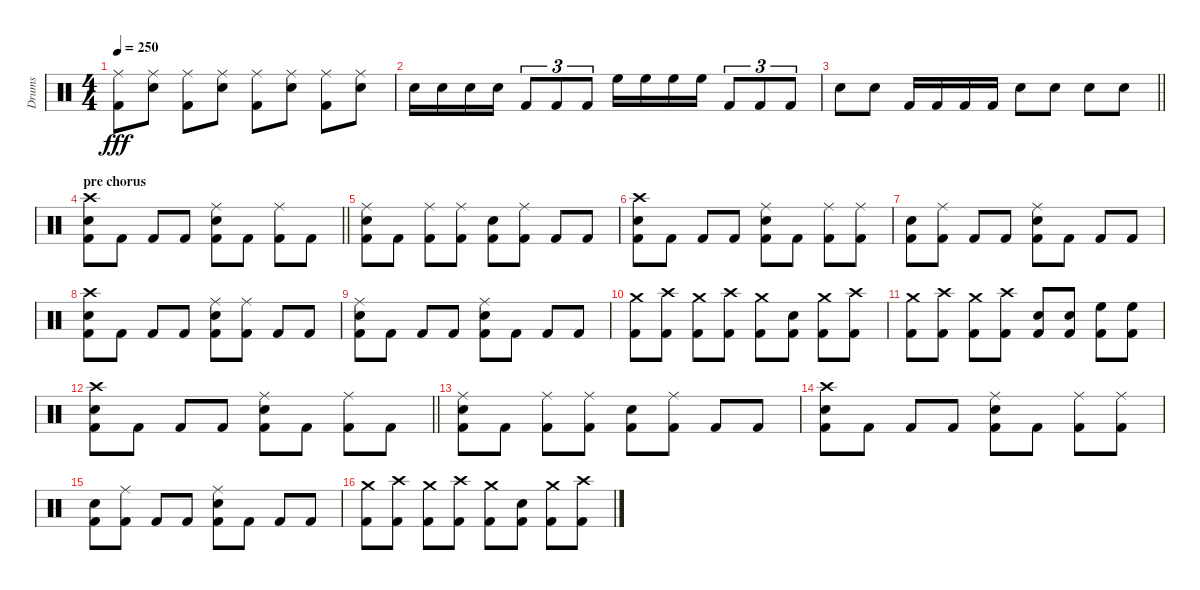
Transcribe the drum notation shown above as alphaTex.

\track ("Drums" "Drums") {solo instrument percussion}
\staff {score}
\articulation defaults
\ts (4 4)
\tempo 250
\clef neutral
\ks c
("Ride (middle)" "Kick (hit) 2").8{dy fff} ("Ride (middle)" "Snare (hit) 2").8 ("Ride (middle)" "Kick (hit) 2").8 ("Ride (middle)" "Snare (hit) 2").8 ("Ride (middle)" "Kick (hit) 2").8 ("Ride (middle)" "Snare (hit) 2").8 ("Ride (middle)" "Kick (hit) 2").8 ("Ride (middle)" "Snare (hit) 2").8 |
"Snare (hit) 2".16 "Snare (hit) 2".16 "Snare (hit) 2".16 "Snare (hit) 2".16 "Kick (hit) 2".8{tu (3 2)} "Kick (hit) 2".8{tu (3 2)} "Kick (hit) 2".8{tu (3 2)} "High Floor Tom (hit)".16 "High Floor Tom (hit)".16 "High Floor Tom (hit)".16 "High Floor Tom (hit)".16 "Kick (hit) 2".8{tu (3 2)} "Kick (hit) 2".8{tu (3 2)} "Kick (hit) 2".8{tu (3 2)} |
\barLineRight lightlight "Snare (hit) 2".8 "Snare (hit) 2".8 "Kick (hit) 2".16 "Kick (hit) 2".16 "Kick (hit) 2".16 "Kick (hit) 2".16 "Snare (hit) 2".8 "Snare (hit) 2".8 "Snare (hit) 2".8 "Snare (hit) 2".8
|
\section ("" "pre chorus")
\barLineRight lightlight
("Crash high (hit)" "Snare (hit) 2" "Kick (hit) 2").8 "Kick (hit) 2".8 "Kick (hit) 2".8 "Kick (hit) 2".8 ("Ride (middle)" "Snare (hit) 2" "Kick (hit) 2").8 "Kick (hit) 2".8 ("Ride (middle)" "Kick (hit) 2").8 "Kick (hit) 2".8 |
("Ride (middle)" "Snare (hit) 2" "Kick (hit) 2").8 "Kick (hit) 2".8 ("Ride (middle)" "Kick (hit) 2").8 ("Ride (middle)" "Kick (hit) 2").8 ("Snare (hit) 2" "Kick (hit) 2").8 ("Ride (middle)" "Kick (hit) 2").8 "Kick (hit) 2".8 "Kick (hit) 2".8 |
("Crash high (hit)" "Snare (hit) 2" "Kick (hit) 2").8 "Kick (hit) 2".8 "Kick (hit) 2".8 "Kick (hit) 2".8 ("Ride (middle)" "Snare (hit) 2" "Kick (hit) 2").8 "Kick (hit) 2".8 ("Ride (middle)" "Kick (hit) 2").8 ("Ride (middle)" "Kick (hit) 2").8 |
("Snare (hit) 2" "Kick (hit) 2").8 ("Ride (middle)" "Kick (hit) 2").8 "Kick (hit) 2".8 "Kick (hit) 2".8 ("Ride (middle)" "Snare (hit) 2" "Kick (hit) 2").8 "Kick (hit) 2".8 "Kick (hit) 2".8 "Kick (hit) 2".8 |
("Crash high (hit)" "Snare (hit) 2" "Kick (hit) 2").8 "Kick (hit) 2".8 "Kick (hit) 2".8 "Kick (hit) 2".8 ("Ride (middle)" "Snare (hit) 2" "Kick (hit) 2").8 ("Ride (middle)" "Kick (hit) 2").8 "Kick (hit) 2".8 "Kick (hit) 2".8 |
("Ride (middle)" "Snare (hit) 2" "Kick (hit) 2").8 "Kick (hit) 2".8 "Kick (hit) 2".8 "Kick (hit) 2".8 ("Ride (middle)" "Snare (hit) 2" "Kick (hit) 2").8 "Kick (hit) 2".8 "Kick (hit) 2".8 "Kick (hit) 2".8 |
("Crash medium (hit)" "Kick (hit) 2").8 ("Crash high (hit)" "Kick (hit) 2").8 ("Crash medium (hit)" "Kick (hit) 2").8 ("Crash high (hit)" "Kick (hit) 2").8 ("Crash medium (hit)" "Kick (hit) 2").8 ("Snare (hit) 2" "Kick (hit) 2").8 ("Crash medium (hit)" "Kick (hit) 2").8 ("Crash high (hit)" "Kick (hit) 2").8 |
("Crash medium (hit)" "Kick (hit) 2").8 ("Crash high (hit)" "Kick (hit) 2").8 ("Crash medium (hit)" "Kick (hit) 2").8 ("Crash high (hit)" "Kick (hit) 2").8 ("Snare (hit) 2" "Kick (hit) 2").8 ("Snare (hit) 2" "Kick (hit) 2").8 ("High Floor Tom (hit)" "Kick (hit) 2").8 ("High Floor Tom (hit)" "Kick (hit) 2").8 |
\barLineRight lightlight
("Crash high (hit)" "Snare (hit) 2" "Kick (hit) 2").8 "Kick (hit) 2".8 "Kick (hit) 2".8 "Kick (hit) 2".8 ("Ride (middle)" "Snare (hit) 2" "Kick (hit) 2").8 "Kick (hit) 2".8 ("Ride (middle)" "Kick (hit) 2").8 "Kick (hit) 2".8 |
("Ride (middle)" "Snare (hit) 2" "Kick (hit) 2").8 "Kick (hit) 2".8 ("Ride (middle)" "Kick (hit) 2").8 ("Ride (middle)" "Kick (hit) 2").8 ("Snare (hit) 2" "Kick (hit) 2").8 ("Ride (middle)" "Kick (hit) 2").8 "Kick (hit) 2".8 "Kick (hit) 2".8 |
("Crash high (hit)" "Snare (hit) 2" "Kick (hit) 2").8 "Kick (hit) 2".8 "Kick (hit) 2".8 "Kick (hit) 2".8 ("Ride (middle)" "Snare (hit) 2" "Kick (hit) 2").8 "Kick (hit) 2".8 ("Ride (middle)" "Kick (hit) 2").8 ("Ride (middle)" "Kick (hit) 2").8 |
("Snare (hit) 2" "Kick (hit) 2").8 ("Ride (middle)" "Kick (hit) 2").8 "Kick (hit) 2".8 "Kick (hit) 2".8 ("Ride (middle)" "Snare (hit) 2" "Kick (hit) 2").8 "Kick (hit) 2".8 "Kick (hit) 2".8 "Kick (hit) 2".8 |
("Crash medium (hit)" "Kick (hit) 2").8 ("Crash high (hit)" "Kick (hit) 2").8 ("Crash medium (hit)" "Kick (hit) 2").8 ("Crash high (hit)" "Kick (hit) 2").8 ("Crash medium (hit)" "Kick (hit) 2").8 ("Snare (hit) 2" "Kick (hit) 2").8 ("Crash medium (hit)" "Kick (hit) 2").8 ("Crash high (hit)" "Kick (hit) 2").8
